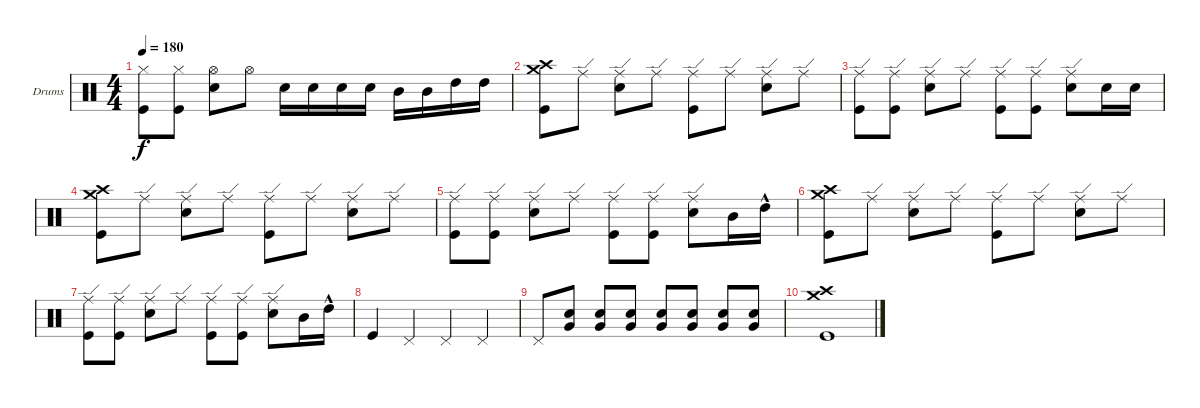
\bracketExtendMode groupsimilarinstruments
\firstSystemTrackNameOrientation horizontal
\otherSystemsTrackNameOrientation horizontal
\track ("Drumkit" "Drums") {instrument percussion}
\staff {score}
\articulation defaults
\ts (4 4)
\tempo 180
\clef neutral
\ks c
("Hi-Hat (closed)" "Kick (hit)").8{dy f} ("Hi-Hat (closed)" "Kick (hit)").8 ("Hi-Hat (open)" "Snare (hit) 2").8 "Hi-Hat (open)".8 "Snare (hit) 2".16 "Snare (hit) 2".16 "Snare (hit) 2".16 "Snare (hit) 2".16 "Mid Tom (hit)".16 "Mid Tom (hit)".16 "High Tom (hit)".16 "High Tom (hit)".16 |
("Kick (hit)" "Crash high (hit)" "Crash medium (hit)").8 "Ride (edge)".8 ("Snare (hit) 2" "Ride (edge)").8 "Ride (edge)".8 ("Kick (hit)" "Ride (edge)").8 "Ride (edge)".8 ("Snare (hit) 2" "Ride (edge)").8 "Ride (edge)".8 |
("Kick (hit)" "Ride (edge)").8 ("Kick (hit)" "Ride (edge)").8 ("Snare (hit) 2" "Ride (edge)").8 "Ride (edge)".8 ("Kick (hit)" "Ride (edge)").8 ("Kick (hit)" "Ride (edge)").8 ("Snare (hit) 2" "Ride (edge)").8 "Snare (hit) 2".16 "Snare (hit) 2".16 |
("Kick (hit)" "Crash high (hit)" "Crash medium (hit)").8 "Ride (edge)".8 ("Snare (hit) 2" "Ride (edge)").8 "Ride (edge)".8 ("Kick (hit)" "Ride (edge)").8 "Ride (edge)".8 ("Snare (hit) 2" "Ride (edge)").8 "Ride (edge)".8 |
("Kick (hit)" "Ride (edge)").8 ("Kick (hit)" "Ride (edge)").8 ("Snare (hit) 2" "Ride (edge)").8 "Ride (edge)".8 ("Kick (hit)" "Ride (edge)").8 ("Kick (hit)" "Ride (edge)").8 ("Snare (hit) 2" "Ride (edge)").8 "Mid Tom (hit)".16 "High Tom (hit)"{hac}.16 |
("Kick (hit)" "Crash high (hit)" "Crash medium (hit)").8 "Ride (edge)".8 ("Snare (hit) 2" "Ride (edge)").8 "Ride (edge)".8 ("Kick (hit)" "Ride (edge)").8 "Ride (edge)".8 ("Snare (hit) 2" "Ride (edge)").8 "Ride (edge)".8 |
("Kick (hit)" "Ride (edge)").8 ("Kick (hit)" "Ride (edge)").8 ("Snare (hit) 2" "Ride (edge)").8 "Ride (edge)".8 ("Kick (hit)" "Ride (edge)").8 ("Kick (hit)" "Ride (edge)").8 ("Snare (hit) 2" "Ride (edge)").8 "Mid Tom (hit)".16 "High Tom (hit)"{hac}.16 |
"Kick (hit)".4 "Pedal Hi-Hat (hit)".4 "Pedal Hi-Hat (hit)".4 "Pedal Hi-Hat (hit)".4 |
"Pedal Hi-Hat (hit)".8 ("Snare (hit) 2" "Very Low Tom (hit)").8 ("Snare (hit) 2" "Very Low Tom (hit)").8 ("Snare (hit) 2" "Very Low Tom (hit)").8 ("Snare (hit) 2" "Very Low Tom (hit)").8 ("Snare (hit) 2" "Very Low Tom (hit)").8 ("Snare (hit) 2" "Very Low Tom (hit)").8 ("Snare (hit) 2" "Very Low Tom (hit)").8 |
("Kick (hit)" "Crash high (hit)" "Crash medium (hit)").1
